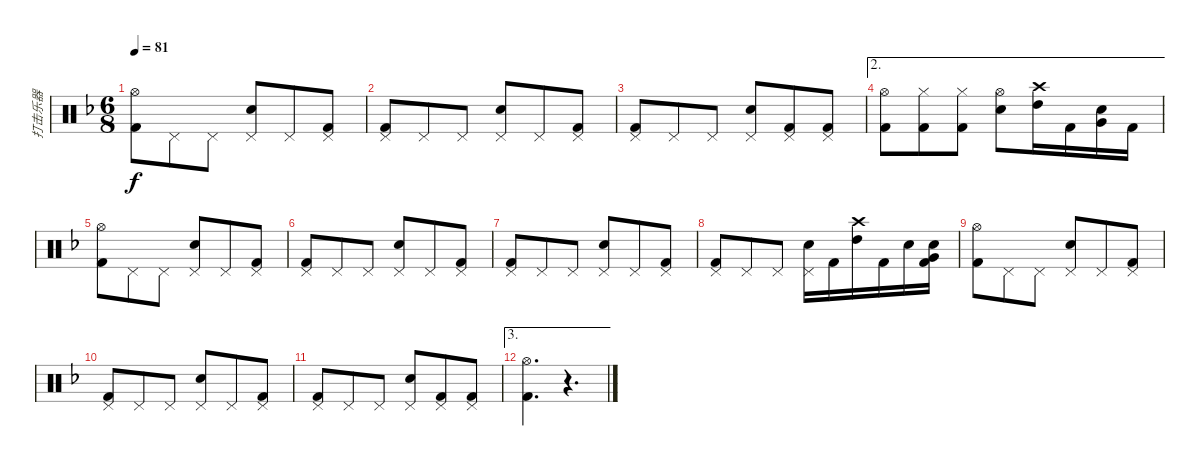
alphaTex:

\track ("打击乐器" "打击乐器") {instrument percussion}
\staff {score}
\articulation defaults
\ts (6 8)
\tempo 81
\clef neutral
\ks f
("Hi-Hat (open)" "Kick (hit) 2").8{dy f} "Pedal Hi-Hat (hit)".8 "Pedal Hi-Hat (hit)".8 ("Pedal Hi-Hat (hit)" "Snare (hit) 2").8 "Pedal Hi-Hat (hit)".8 ("Pedal Hi-Hat (hit)" "Kick (hit) 2").8 |
("Pedal Hi-Hat (hit)" "Kick (hit) 2").8 "Pedal Hi-Hat (hit)".8 "Pedal Hi-Hat (hit)".8 ("Pedal Hi-Hat (hit)" "Snare (hit) 2").8 "Pedal Hi-Hat (hit)".8 ("Pedal Hi-Hat (hit)" "Kick (hit) 2").8 |
("Pedal Hi-Hat (hit)" "Kick (hit) 2").8 "Pedal Hi-Hat (hit)".8 "Pedal Hi-Hat (hit)".8 ("Pedal Hi-Hat (hit)" "Snare (hit) 2").8 ("Pedal Hi-Hat (hit)" "Kick (hit) 2").8 ("Pedal Hi-Hat (hit)" "Kick (hit) 2").8 |
\ae 2
("Hi-Hat (open)" "Kick (hit) 2").8 ("Hi-Hat (closed)" "Kick (hit) 2").8 ("Hi-Hat (closed)" "Kick (hit) 2").8 ("Hi-Hat (open)" "Snare (hit) 2").8 ("Crash high (hit)" "High Tom (hit)").16 "Kick (hit) 2".16 ("Snare (hit) 2" "Very Low Tom (hit)").16 "Kick (hit) 2".16 |
("Hi-Hat (open)" "Kick (hit) 2").8 "Pedal Hi-Hat (hit)".8 "Pedal Hi-Hat (hit)".8 ("Pedal Hi-Hat (hit)" "Snare (hit) 2").8 "Pedal Hi-Hat (hit)".8 ("Pedal Hi-Hat (hit)" "Kick (hit) 2").8 |
("Pedal Hi-Hat (hit)" "Kick (hit) 2").8 "Pedal Hi-Hat (hit)".8 "Pedal Hi-Hat (hit)".8 ("Pedal Hi-Hat (hit)" "Snare (hit) 2").8 "Pedal Hi-Hat (hit)".8 ("Pedal Hi-Hat (hit)" "Kick (hit) 2").8 |
("Pedal Hi-Hat (hit)" "Kick (hit) 2").8 "Pedal Hi-Hat (hit)".8 "Pedal Hi-Hat (hit)".8 ("Pedal Hi-Hat (hit)" "Snare (hit) 2").8 "Pedal Hi-Hat (hit)".8 ("Pedal Hi-Hat (hit)" "Kick (hit) 2").8 |
("Pedal Hi-Hat (hit)" "Kick (hit) 2").8 "Pedal Hi-Hat (hit)".8 "Pedal Hi-Hat (hit)".8 ("Pedal Hi-Hat (hit)" "Snare (hit) 2").16 "Kick (hit) 2".16 ("Crash high (hit)" "High Tom (hit)").16 "Kick (hit) 2".16 "Snare (hit) 2".16 ("Snare (hit) 2" "Very Low Tom (hit)" "Kick (hit) 2").16 |
("Hi-Hat (open)" "Kick (hit) 2").8 "Pedal Hi-Hat (hit)".8 "Pedal Hi-Hat (hit)".8 ("Pedal Hi-Hat (hit)" "Snare (hit) 2").8 "Pedal Hi-Hat (hit)".8 ("Pedal Hi-Hat (hit)" "Kick (hit) 2").8 |
("Pedal Hi-Hat (hit)" "Kick (hit) 2").8 "Pedal Hi-Hat (hit)".8 "Pedal Hi-Hat (hit)".8 ("Pedal Hi-Hat (hit)" "Snare (hit) 2").8 "Pedal Hi-Hat (hit)".8 ("Pedal Hi-Hat (hit)" "Kick (hit) 2").8 |
("Pedal Hi-Hat (hit)" "Kick (hit) 2").8{volume 12} "Pedal Hi-Hat (hit)".8{volume 9} "Pedal Hi-Hat (hit)".8{volume 8} ("Pedal Hi-Hat (hit)" "Snare (hit) 2").8{volume 7} ("Pedal Hi-Hat (hit)" "Kick (hit) 2").8{volume 6} ("Pedal Hi-Hat (hit)" "Kick (hit) 2").8{volume 4} |
\ae 3
("Hi-Hat (open)" "Kick (hit) 2").4{d volume 2} r.4{d}
